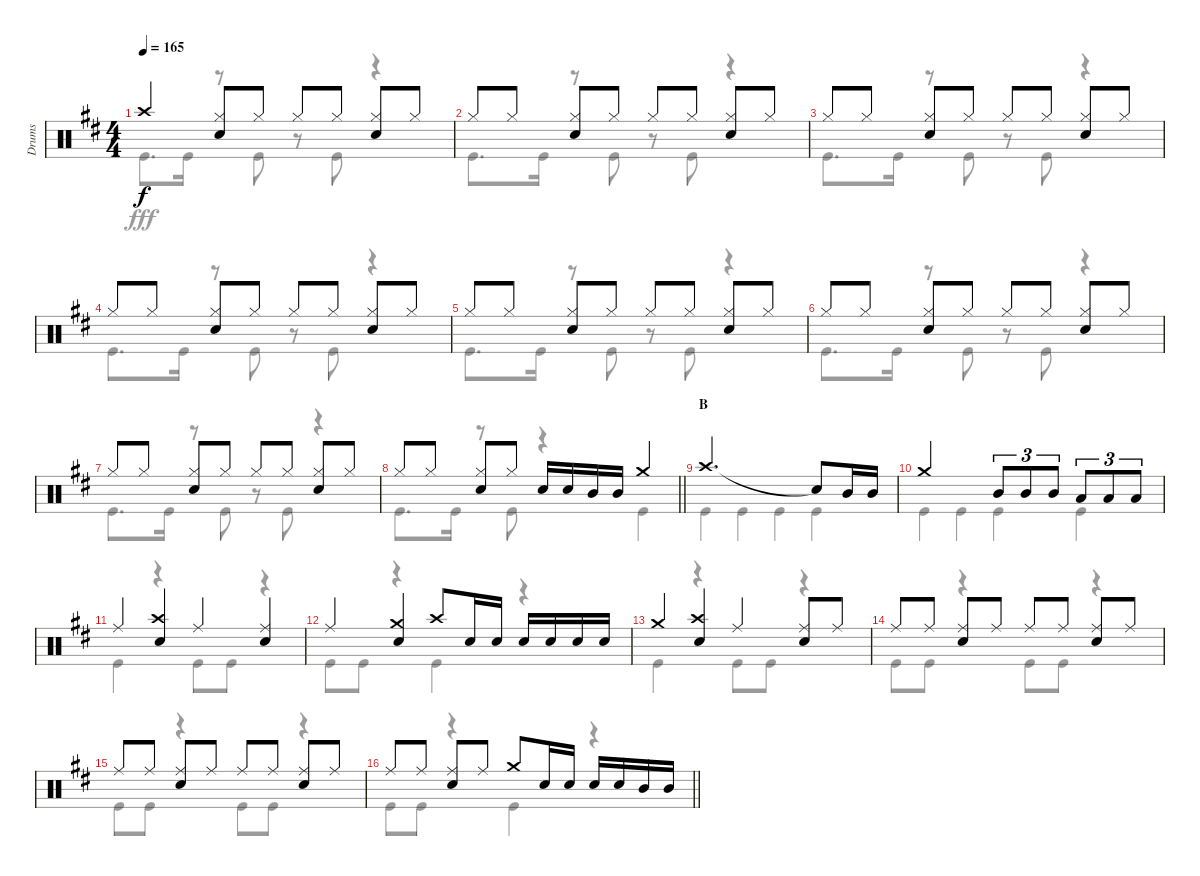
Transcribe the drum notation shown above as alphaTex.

\track ("Drums" "Drums") {instrument percussion}
\staff {score}
\articulation defaults
\voice
\ts (4 4)
\tempo 165
\clef neutral
\ks d "Crash high (hit)".4{dy f}
("Hi-Hat (closed)" "Snare (hit) 2").8 "Hi-Hat (closed)".8 "Hi-Hat (closed)".8 "Hi-Hat (closed)".8 ("Hi-Hat (closed)" "Snare (hit) 2").8 "Hi-Hat (closed)".8 |
"Hi-Hat (closed)".8 "Hi-Hat (closed)".8 ("Hi-Hat (closed)" "Snare (hit) 2").8 "Hi-Hat (closed)".8 "Hi-Hat (closed)".8 "Hi-Hat (closed)".8 ("Hi-Hat (closed)" "Snare (hit) 2").8 "Hi-Hat (closed)".8 |
"Hi-Hat (closed)".8 "Hi-Hat (closed)".8 ("Hi-Hat (closed)" "Snare (hit) 2").8 "Hi-Hat (closed)".8 "Hi-Hat (closed)".8 "Hi-Hat (closed)".8 ("Hi-Hat (closed)" "Snare (hit) 2").8 "Hi-Hat (closed)".8 |
"Hi-Hat (closed)".8 "Hi-Hat (closed)".8 ("Hi-Hat (closed)" "Snare (hit) 2").8 "Hi-Hat (closed)".8 "Hi-Hat (closed)".8 "Hi-Hat (closed)".8 ("Hi-Hat (closed)" "Snare (hit) 2").8 "Hi-Hat (closed)".8 |
"Hi-Hat (closed)".8 "Hi-Hat (closed)".8 ("Hi-Hat (closed)" "Snare (hit) 2").8 "Hi-Hat (closed)".8 "Hi-Hat (closed)".8 "Hi-Hat (closed)".8 ("Hi-Hat (closed)" "Snare (hit) 2").8 "Hi-Hat (closed)".8 |
"Hi-Hat (closed)".8 "Hi-Hat (closed)".8 ("Hi-Hat (closed)" "Snare (hit) 2").8 "Hi-Hat (closed)".8 "Hi-Hat (closed)".8 "Hi-Hat (closed)".8 ("Hi-Hat (closed)" "Snare (hit) 2").8 "Hi-Hat (closed)".8 |
"Hi-Hat (closed)".8 "Hi-Hat (closed)".8 ("Hi-Hat (closed)" "Snare (hit) 2").8 "Hi-Hat (closed)".8 "Hi-Hat (closed)".8 "Hi-Hat (closed)".8 ("Hi-Hat (closed)" "Snare (hit) 2").8 "Hi-Hat (closed)".8 |
\barLineRight lightlight "Hi-Hat (closed)".8 "Hi-Hat (closed)".8
("Hi-Hat (closed)" "Snare (hit) 2").8 "Hi-Hat (closed)".8 "Snare (hit) 2".16 "Snare (hit) 2".16 "Mid Tom (hit)".16 "Mid Tom (hit)".16 "Crash medium (hit)".4 |
\section ("" "B")
"Crash high (hit)".2{d} "Snare (hit)"{t}.8 "Mid Tom (hit)".16 "Mid Tom (hit)".16 |
"Crash medium (hit)".2 "Mid Tom (hit)".8{tu (3 2)} "Mid Tom (hit)".8{tu (3 2)} "Mid Tom (hit)".8{tu (3 2)} "Low Tom (hit)".8{tu (3 2)} "Low Tom (hit)".8{tu (3 2)} "Low Tom (hit)".8{tu (3 2)} |
"Ride (middle)".4 ("Crash high (hit)" "Snare (hit) 2").4 "Ride (middle)".4 ("Ride (middle)" "Snare (hit) 2").4 |
"Ride (middle)".4 ("Crash medium (hit)" "Snare (hit) 2").4 "Crash high (hit)".8 "Snare (hit) 2".16 "Snare (hit) 2".16 "Snare (hit) 2".16 "Snare (hit) 2".16 "Snare (hit) 2".16 "Snare (hit) 2".16 |
"Crash medium (hit)".4 ("Crash high (hit)" "Snare (hit) 2").4 "Ride (middle)".4 ("Ride (middle)" "Snare (hit) 2").8 "Ride (middle)".8 |
"Ride (middle)".8 "Ride (middle)".8 ("Ride (middle)" "Snare (hit) 2").8 "Ride (middle)".8 "Ride (middle)".8 "Ride (middle)".8 ("Ride (middle)" "Snare (hit) 2").8 "Ride (middle)".8 |
"Ride (middle)".8 "Ride (middle)".8 ("Ride (middle)" "Snare (hit) 2").8 "Ride (middle)".8 "Ride (middle)".8 "Ride (middle)".8 ("Ride (middle)" "Snare (hit) 2").8 "Ride (middle)".8 |
\barLineRight lightlight "Ride (middle)".8 "Ride (middle)".8
("Ride (middle)" "Snare (hit) 2").8 "Ride (middle)".8 "Crash medium (hit)".8 "Snare (hit) 2".16 "Snare (hit) 2".16 "Snare (hit) 2".16 "Snare (hit) 2".16 "Mid Tom (hit)".16 "Mid Tom (hit)".16
\voice
\clef neutral
\ottava regular
\simile none
\ks d "Kick (hit)".8{d dy fff} "Kick (hit)".16
r.8 "Kick (hit)".8 r.8 "Kick (hit)".8 r.4 |
"Kick (hit)".8{d} "Kick (hit)".16 r.8 "Kick (hit)".8 r.8 "Kick (hit)".8 r.4 |
"Kick (hit)".8{d} "Kick (hit)".16 r.8 "Kick (hit)".8 r.8 "Kick (hit)".8 r.4 |
"Kick (hit)".8{d} "Kick (hit)".16 r.8 "Kick (hit)".8 r.8 "Kick (hit)".8 r.4 |
"Kick (hit)".8{d} "Kick (hit)".16 r.8 "Kick (hit)".8 r.8 "Kick (hit)".8 r.4 |
"Kick (hit)".8{d} "Kick (hit)".16 r.8 "Kick (hit)".8 r.8 "Kick (hit)".8 r.4 |
"Kick (hit)".8{d} "Kick (hit)".16 r.8 "Kick (hit)".8 r.8 "Kick (hit)".8 r.4 |
\barLineRight lightlight "Kick (hit)".8{d} "Kick (hit)".16
r.8 "Kick (hit)".8 r.4 "Kick (hit)".4 |
"Kick (hit)".4 "Kick (hit)".4 "Kick (hit)".4 "Kick (hit)".4 |
"Kick (hit)".4 "Kick (hit)".4 "Kick (hit)".4 "Kick (hit)".4 |
"Kick (hit)".4 r.4 "Kick (hit)".8 "Kick (hit)".8 r.4 |
"Kick (hit)".8 "Kick (hit)".8 r.4 "Kick (hit)".4 r.4 |
"Kick (hit)".4 r.4 "Kick (hit)".8 "Kick (hit)".8 r.4 |
"Kick (hit)".8 "Kick (hit)".8 r.4 "Kick (hit)".8 "Kick (hit)".8 r.4 |
"Kick (hit)".8 "Kick (hit)".8 r.4 "Kick (hit)".8 "Kick (hit)".8 r.4 |
\barLineRight lightlight "Kick (hit)".8 "Kick (hit)".8
r.4 "Kick (hit)".4 r.4
